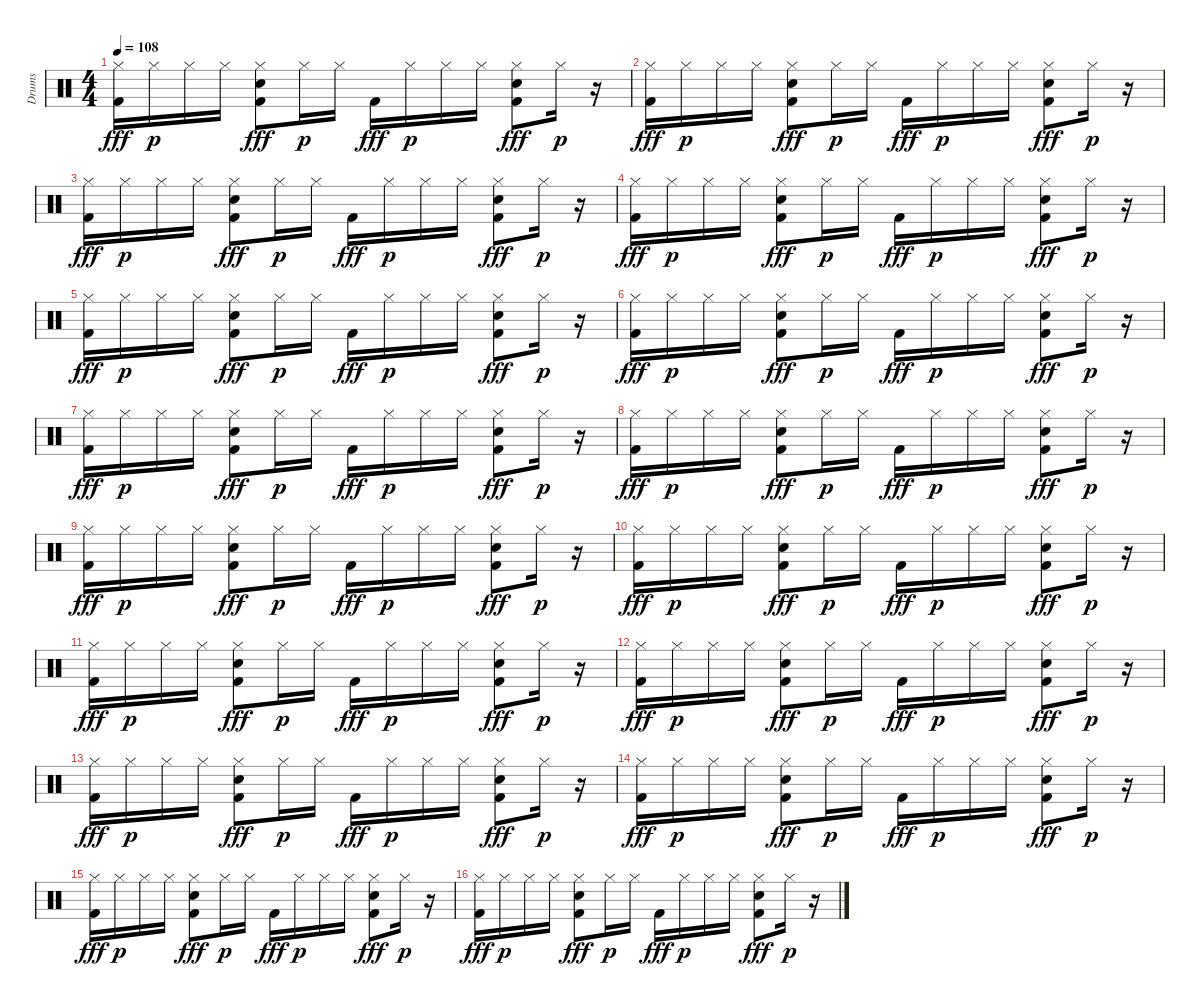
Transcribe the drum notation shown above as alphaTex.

\track ("Drums" "Drums") {instrument percussion}
\staff {score}
\articulation defaults
\ts (4 4)
\tempo 108
\clef neutral
\ks c
("Hi-Hat (closed)" "Kick (hit) 2").16{dy fff} "Hi-Hat (closed)".16{dy p} "Hi-Hat (closed)".16 "Hi-Hat (closed)".16 ("Hi-Hat (closed)" "Hand Clap (hit)" "Kick (hit) 2").8{dy fff} "Hi-Hat (closed)".16{dy p} "Hi-Hat (closed)".16 "Kick (hit) 2".16{dy fff} "Hi-Hat (closed)".16{dy p} "Hi-Hat (closed)".16 "Hi-Hat (closed)".16 ("Hi-Hat (closed)" "Hand Clap (hit)" "Kick (hit) 2").8{dy fff} "Hi-Hat (closed)".16{dy p} r.16 |
("Hi-Hat (closed)" "Kick (hit) 2").16{dy fff} "Hi-Hat (closed)".16{dy p} "Hi-Hat (closed)".16 "Hi-Hat (closed)".16 ("Hi-Hat (closed)" "Hand Clap (hit)" "Kick (hit) 2").8{dy fff} "Hi-Hat (closed)".16{dy p} "Hi-Hat (closed)".16 "Kick (hit) 2".16{dy fff} "Hi-Hat (closed)".16{dy p} "Hi-Hat (closed)".16 "Hi-Hat (closed)".16 ("Hi-Hat (closed)" "Hand Clap (hit)" "Kick (hit) 2").8{dy fff} "Hi-Hat (closed)".16{dy p} r.16 |
("Hi-Hat (closed)" "Kick (hit) 2").16{dy fff} "Hi-Hat (closed)".16{dy p} "Hi-Hat (closed)".16 "Hi-Hat (closed)".16 ("Hi-Hat (closed)" "Hand Clap (hit)" "Kick (hit) 2").8{dy fff} "Hi-Hat (closed)".16{dy p} "Hi-Hat (closed)".16 "Kick (hit) 2".16{dy fff} "Hi-Hat (closed)".16{dy p} "Hi-Hat (closed)".16 "Hi-Hat (closed)".16 ("Hi-Hat (closed)" "Hand Clap (hit)" "Kick (hit) 2").8{dy fff} "Hi-Hat (closed)".16{dy p} r.16 |
("Hi-Hat (closed)" "Kick (hit) 2").16{dy fff} "Hi-Hat (closed)".16{dy p} "Hi-Hat (closed)".16 "Hi-Hat (closed)".16 ("Hi-Hat (closed)" "Hand Clap (hit)" "Kick (hit) 2").8{dy fff} "Hi-Hat (closed)".16{dy p} "Hi-Hat (closed)".16 "Kick (hit) 2".16{dy fff} "Hi-Hat (closed)".16{dy p} "Hi-Hat (closed)".16 "Hi-Hat (closed)".16 ("Hi-Hat (closed)" "Hand Clap (hit)" "Kick (hit) 2").8{dy fff} "Hi-Hat (closed)".16{dy p} r.16 |
("Hi-Hat (closed)" "Kick (hit) 2").16{dy fff} "Hi-Hat (closed)".16{dy p} "Hi-Hat (closed)".16 "Hi-Hat (closed)".16 ("Hi-Hat (closed)" "Hand Clap (hit)" "Kick (hit) 2").8{dy fff} "Hi-Hat (closed)".16{dy p} "Hi-Hat (closed)".16 "Kick (hit) 2".16{dy fff} "Hi-Hat (closed)".16{dy p} "Hi-Hat (closed)".16 "Hi-Hat (closed)".16 ("Hi-Hat (closed)" "Hand Clap (hit)" "Kick (hit) 2").8{dy fff} "Hi-Hat (closed)".16{dy p} r.16 |
("Hi-Hat (closed)" "Kick (hit) 2").16{dy fff} "Hi-Hat (closed)".16{dy p} "Hi-Hat (closed)".16 "Hi-Hat (closed)".16 ("Hi-Hat (closed)" "Hand Clap (hit)" "Kick (hit) 2").8{dy fff} "Hi-Hat (closed)".16{dy p} "Hi-Hat (closed)".16 "Kick (hit) 2".16{dy fff} "Hi-Hat (closed)".16{dy p} "Hi-Hat (closed)".16 "Hi-Hat (closed)".16 ("Hi-Hat (closed)" "Hand Clap (hit)" "Kick (hit) 2").8{dy fff} "Hi-Hat (closed)".16{dy p} r.16 |
("Hi-Hat (closed)" "Kick (hit) 2").16{dy fff} "Hi-Hat (closed)".16{dy p} "Hi-Hat (closed)".16 "Hi-Hat (closed)".16 ("Hi-Hat (closed)" "Hand Clap (hit)" "Kick (hit) 2").8{dy fff} "Hi-Hat (closed)".16{dy p} "Hi-Hat (closed)".16 "Kick (hit) 2".16{dy fff} "Hi-Hat (closed)".16{dy p} "Hi-Hat (closed)".16 "Hi-Hat (closed)".16 ("Hi-Hat (closed)" "Hand Clap (hit)" "Kick (hit) 2").8{dy fff} "Hi-Hat (closed)".16{dy p} r.16 |
("Hi-Hat (closed)" "Kick (hit) 2").16{dy fff} "Hi-Hat (closed)".16{dy p} "Hi-Hat (closed)".16 "Hi-Hat (closed)".16 ("Hi-Hat (closed)" "Hand Clap (hit)" "Kick (hit) 2").8{dy fff} "Hi-Hat (closed)".16{dy p} "Hi-Hat (closed)".16 "Kick (hit) 2".16{dy fff} "Hi-Hat (closed)".16{dy p} "Hi-Hat (closed)".16 "Hi-Hat (closed)".16 ("Hi-Hat (closed)" "Hand Clap (hit)" "Kick (hit) 2").8{dy fff} "Hi-Hat (closed)".16{dy p} r.16 |
("Hi-Hat (closed)" "Kick (hit) 2").16{dy fff} "Hi-Hat (closed)".16{dy p} "Hi-Hat (closed)".16 "Hi-Hat (closed)".16 ("Hi-Hat (closed)" "Hand Clap (hit)" "Kick (hit) 2").8{dy fff} "Hi-Hat (closed)".16{dy p} "Hi-Hat (closed)".16 "Kick (hit) 2".16{dy fff} "Hi-Hat (closed)".16{dy p} "Hi-Hat (closed)".16 "Hi-Hat (closed)".16 ("Hi-Hat (closed)" "Hand Clap (hit)" "Kick (hit) 2").8{dy fff} "Hi-Hat (closed)".16{dy p} r.16 |
("Hi-Hat (closed)" "Kick (hit) 2").16{dy fff} "Hi-Hat (closed)".16{dy p} "Hi-Hat (closed)".16 "Hi-Hat (closed)".16 ("Hi-Hat (closed)" "Hand Clap (hit)" "Kick (hit) 2").8{dy fff} "Hi-Hat (closed)".16{dy p} "Hi-Hat (closed)".16 "Kick (hit) 2".16{dy fff} "Hi-Hat (closed)".16{dy p} "Hi-Hat (closed)".16 "Hi-Hat (closed)".16 ("Hi-Hat (closed)" "Hand Clap (hit)" "Kick (hit) 2").8{dy fff} "Hi-Hat (closed)".16{dy p} r.16 |
("Hi-Hat (closed)" "Kick (hit) 2").16{dy fff} "Hi-Hat (closed)".16{dy p} "Hi-Hat (closed)".16 "Hi-Hat (closed)".16 ("Hi-Hat (closed)" "Hand Clap (hit)" "Kick (hit) 2").8{dy fff} "Hi-Hat (closed)".16{dy p} "Hi-Hat (closed)".16 "Kick (hit) 2".16{dy fff} "Hi-Hat (closed)".16{dy p} "Hi-Hat (closed)".16 "Hi-Hat (closed)".16 ("Hi-Hat (closed)" "Hand Clap (hit)" "Kick (hit) 2").8{dy fff} "Hi-Hat (closed)".16{dy p} r.16 |
("Hi-Hat (closed)" "Kick (hit) 2").16{dy fff} "Hi-Hat (closed)".16{dy p} "Hi-Hat (closed)".16 "Hi-Hat (closed)".16 ("Hi-Hat (closed)" "Hand Clap (hit)" "Kick (hit) 2").8{dy fff} "Hi-Hat (closed)".16{dy p} "Hi-Hat (closed)".16 "Kick (hit) 2".16{dy fff} "Hi-Hat (closed)".16{dy p} "Hi-Hat (closed)".16 "Hi-Hat (closed)".16 ("Hi-Hat (closed)" "Hand Clap (hit)" "Kick (hit) 2").8{dy fff} "Hi-Hat (closed)".16{dy p} r.16 |
("Hi-Hat (closed)" "Kick (hit) 2").16{dy fff} "Hi-Hat (closed)".16{dy p} "Hi-Hat (closed)".16 "Hi-Hat (closed)".16 ("Hi-Hat (closed)" "Hand Clap (hit)" "Kick (hit) 2").8{dy fff} "Hi-Hat (closed)".16{dy p} "Hi-Hat (closed)".16 "Kick (hit) 2".16{dy fff} "Hi-Hat (closed)".16{dy p} "Hi-Hat (closed)".16 "Hi-Hat (closed)".16 ("Hi-Hat (closed)" "Hand Clap (hit)" "Kick (hit) 2").8{dy fff} "Hi-Hat (closed)".16{dy p} r.16 |
("Hi-Hat (closed)" "Kick (hit) 2").16{dy fff} "Hi-Hat (closed)".16{dy p} "Hi-Hat (closed)".16 "Hi-Hat (closed)".16 ("Hi-Hat (closed)" "Hand Clap (hit)" "Kick (hit) 2").8{dy fff} "Hi-Hat (closed)".16{dy p} "Hi-Hat (closed)".16 "Kick (hit) 2".16{dy fff} "Hi-Hat (closed)".16{dy p} "Hi-Hat (closed)".16 "Hi-Hat (closed)".16 ("Hi-Hat (closed)" "Hand Clap (hit)" "Kick (hit) 2").8{dy fff} "Hi-Hat (closed)".16{dy p} r.16 |
("Hi-Hat (closed)" "Kick (hit) 2").16{dy fff} "Hi-Hat (closed)".16{dy p} "Hi-Hat (closed)".16 "Hi-Hat (closed)".16 ("Hi-Hat (closed)" "Hand Clap (hit)" "Kick (hit) 2").8{dy fff} "Hi-Hat (closed)".16{dy p} "Hi-Hat (closed)".16 "Kick (hit) 2".16{dy fff} "Hi-Hat (closed)".16{dy p} "Hi-Hat (closed)".16 "Hi-Hat (closed)".16 ("Hi-Hat (closed)" "Hand Clap (hit)" "Kick (hit) 2").8{dy fff} "Hi-Hat (closed)".16{dy p} r.16 |
("Hi-Hat (closed)" "Kick (hit) 2").16{dy fff} "Hi-Hat (closed)".16{dy p} "Hi-Hat (closed)".16 "Hi-Hat (closed)".16 ("Hi-Hat (closed)" "Hand Clap (hit)" "Kick (hit) 2").8{dy fff} "Hi-Hat (closed)".16{dy p} "Hi-Hat (closed)".16 "Kick (hit) 2".16{dy fff} "Hi-Hat (closed)".16{dy p} "Hi-Hat (closed)".16 "Hi-Hat (closed)".16 ("Hi-Hat (closed)" "Hand Clap (hit)" "Kick (hit) 2").8{dy fff} "Hi-Hat (closed)".16{dy p} r.16
